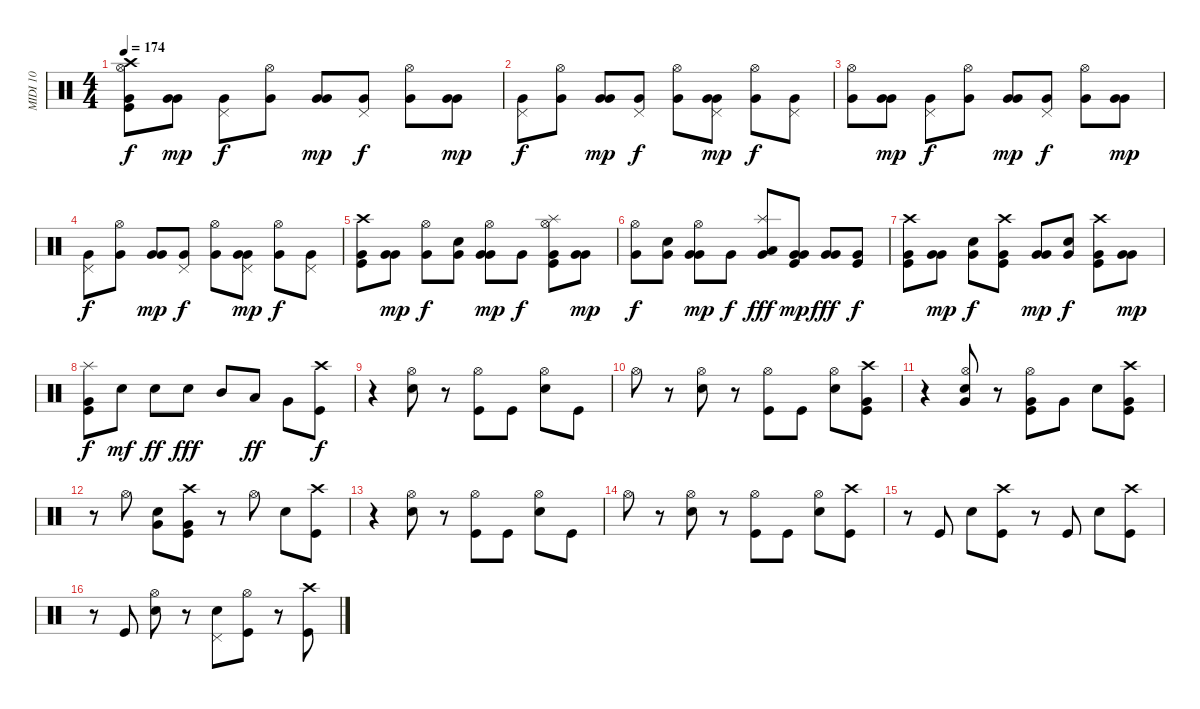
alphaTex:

\track ("MIDI 10" "MIDI 10") {instrument percussion}
\staff {score}
\articulation defaults
\ts (4 4)
\tempo 174
\clef neutral
\ks c
("Crash high (hit)" "Kick (hit)" "Very Low Tom (hit)" "Hi-Hat (open)").8{dy f} ("Very Low Tom (hit)" "Very Low Tom (hit)").8{dy mp} ("Very Low Tom (hit)" "Pedal Hi-Hat (hit)").8{dy f} ("Very Low Tom (hit)" "Hi-Hat (open)").8 ("Very Low Tom (hit)" "Very Low Tom (hit)").8{dy mp} ("Very Low Tom (hit)" "Pedal Hi-Hat (hit)").8{dy f} ("Very Low Tom (hit)" "Hi-Hat (open)").8 ("Very Low Tom (hit)" "Very Low Tom (hit)").8{dy mp} |
("Very Low Tom (hit)" "Pedal Hi-Hat (hit)").8{dy f} ("Very Low Tom (hit)" "Hi-Hat (open)").8 ("Very Low Tom (hit)" "Very Low Tom (hit)").8{dy mp} ("Very Low Tom (hit)" "Pedal Hi-Hat (hit)").8{dy f} ("Very Low Tom (hit)" "Hi-Hat (open)").8 ("Very Low Tom (hit)" "Pedal Hi-Hat (hit)" "Very Low Tom (hit)").8{dy mp} ("Very Low Tom (hit)" "Hi-Hat (open)").8{dy f} ("Very Low Tom (hit)" "Pedal Hi-Hat (hit)").8 |
("Very Low Tom (hit)" "Hi-Hat (open)").8 ("Very Low Tom (hit)" "Very Low Tom (hit)").8{dy mp} ("Very Low Tom (hit)" "Pedal Hi-Hat (hit)").8{dy f} ("Very Low Tom (hit)" "Hi-Hat (open)").8 ("Very Low Tom (hit)" "Very Low Tom (hit)").8{dy mp} ("Very Low Tom (hit)" "Pedal Hi-Hat (hit)").8{dy f} ("Very Low Tom (hit)" "Hi-Hat (open)").8 ("Very Low Tom (hit)" "Very Low Tom (hit)").8{dy mp} |
("Very Low Tom (hit)" "Pedal Hi-Hat (hit)").8{dy f} ("Very Low Tom (hit)" "Hi-Hat (open)").8 ("Very Low Tom (hit)" "Very Low Tom (hit)").8{dy mp} ("Very Low Tom (hit)" "Pedal Hi-Hat (hit)").8{dy f} ("Very Low Tom (hit)" "Hi-Hat (open)").8 ("Very Low Tom (hit)" "Pedal Hi-Hat (hit)" "Very Low Tom (hit)").8{dy mp} ("Very Low Tom (hit)" "Hi-Hat (open)").8{dy f} ("Very Low Tom (hit)" "Pedal Hi-Hat (hit)").8 |
("Kick (hit)" "Crash high (hit)" "Very Low Tom (hit)").8 ("Very Low Tom (hit)" "Very Low Tom (hit)").8{dy mp} ("Hi-Hat (open)" "Very Low Tom (hit)").8{dy f} ("Snare (hit) 2" "Very Low Tom (hit)").8 ("Hi-Hat (open)" "Very Low Tom (hit)" "Very Low Tom (hit)").8{dy mp} "Very Low Tom (hit)".8{dy f} ("Kick (hit)" "Splash (hit)" "Hi-Hat (open)" "Very Low Tom (hit)").8 ("Very Low Tom (hit)" "Very Low Tom (hit)").8{dy mp} |
("Hi-Hat (open)" "Very Low Tom (hit)").8{dy f} ("Snare (hit) 2" "Very Low Tom (hit)").8 ("Hi-Hat (open)" "Very Low Tom (hit)" "Very Low Tom (hit)").8{dy mp} "Very Low Tom (hit)".8{dy f} ("Splash (hit)" "Low Tom (hit)" "Very Low Tom (hit)").8{dy fff} ("Kick (hit)" "Very Low Tom (hit)" "Very Low Tom (hit)").8{dy mp} ("Very Low Tom (hit)" "Very Low Tom (hit)").8{dy fff} ("Kick (hit)" "Very Low Tom (hit)").8{dy f} |
("Crash high (hit)" "Kick (hit)" "Very Low Tom (hit)").8 ("Very Low Tom (hit)" "Very Low Tom (hit)").8{dy mp} ("Snare (hit) 2" "Very Low Tom (hit)").8{dy f} ("Kick (hit)" "Crash high (hit)" "Very Low Tom (hit)").8 ("Very Low Tom (hit)" "Very Low Tom (hit)").8{dy mp} ("Snare (hit) 2" "Very Low Tom (hit)").8{dy f} ("Kick (hit)" "Crash high (hit)" "Very Low Tom (hit)").8 ("Very Low Tom (hit)" "Very Low Tom (hit)").8{dy mp} |
("Splash (hit)" "Kick (hit)" "Very Low Tom (hit)").8{dy f} "Snare (hit) 2".8{dy mf} "Snare (hit) 2".8{dy ff} "Snare (hit) 2".8{dy fff} "Mid Tom (hit)".8 "Low Tom (hit)".8{dy ff} "Very Low Tom (hit)".8 ("Kick (hit)" "Crash high (hit)").8{dy f} |
r.4 ("Hi-Hat (open)" "Snare (hit) 2").8 r.8 ("Hi-Hat (open)" "Kick (hit)").8 "Kick (hit)".8 ("Hi-Hat (open)" "Snare (hit) 2").8 "Kick (hit)".8 |
"Hi-Hat (open)".8 r.8 ("Hi-Hat (open)" "Snare (hit) 2").8 r.8 ("Hi-Hat (open)" "Kick (hit)").8 "Kick (hit)".8 ("Hi-Hat (open)" "Snare (hit) 2").8 ("Kick (hit)" "Crash high (hit)" "Very Low Tom (hit)").8 |
r.4 ("Hi-Hat (open)" "Snare (hit) 2" "Very Low Tom (hit)").8 r.8 ("Hi-Hat (open)" "Kick (hit)" "Very Low Tom (hit)").8 "Very Low Tom (hit)".8 "Snare (hit) 2".8 ("Crash high (hit)" "Kick (hit)" "Very Low Tom (hit)").8 |
r.8 "Hi-Hat (open)".8 ("Snare (hit) 2" "Very Low Tom (hit)").8 ("Crash high (hit)" "Kick (hit)" "Very Low Tom (hit)").8 r.8 "Hi-Hat (open)".8 "Snare (hit) 2".8 ("Kick (hit)" "Crash high (hit)").8 |
r.4 ("Hi-Hat (open)" "Snare (hit) 2").8 r.8 ("Hi-Hat (open)" "Kick (hit)").8 "Kick (hit)".8 ("Hi-Hat (open)" "Snare (hit) 2").8 "Kick (hit)".8 |
"Hi-Hat (open)".8 r.8 ("Hi-Hat (open)" "Snare (hit) 2").8 r.8 ("Hi-Hat (open)" "Kick (hit)").8 "Kick (hit)".8 ("Hi-Hat (open)" "Snare (hit) 2").8 ("Kick (hit)" "Crash high (hit)").8 |
r.8 "Kick (hit)".8 "Snare (hit) 2".8 ("Kick (hit)" "Crash high (hit)").8 r.8 "Kick (hit)".8 "Snare (hit) 2".8 ("Kick (hit)" "Crash high (hit)").8 |
r.8 "Kick (hit)".8 ("Hi-Hat (open)" "Snare (hit) 2").8 r.8 ("Pedal Hi-Hat (hit)" "Snare (hit) 2").8 ("Hi-Hat (open)" "Kick (hit)").8 r.8 ("Kick (hit)" "Crash high (hit)").8
